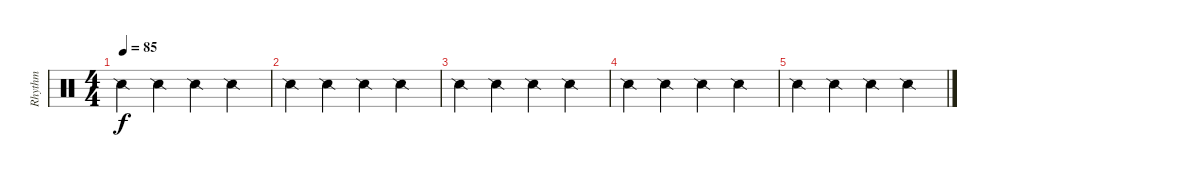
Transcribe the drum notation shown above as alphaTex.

\track ("Rhythm" "Rhythm") {instrument percussion}
\staff {score}
\articulation defaults
\ts (4 4)
\tempo 85
\clef neutral
\ks c "Snare (side stick) 2".4{dy f} "Snare (side stick) 2".4 "Snare (side stick) 2".4 "Snare (side stick) 2".4
|
"Snare (side stick) 2".4 "Snare (side stick) 2".4 "Snare (side stick) 2".4 "Snare (side stick) 2".4 |
"Snare (side stick) 2".4 "Snare (side stick) 2".4 "Snare (side stick) 2".4 "Snare (side stick) 2".4 |
"Snare (side stick) 2".4 "Snare (side stick) 2".4 "Snare (side stick) 2".4 "Snare (side stick) 2".4 |
"Snare (side stick) 2".4 "Snare (side stick) 2".4 "Snare (side stick) 2".4 "Snare (side stick) 2".4
